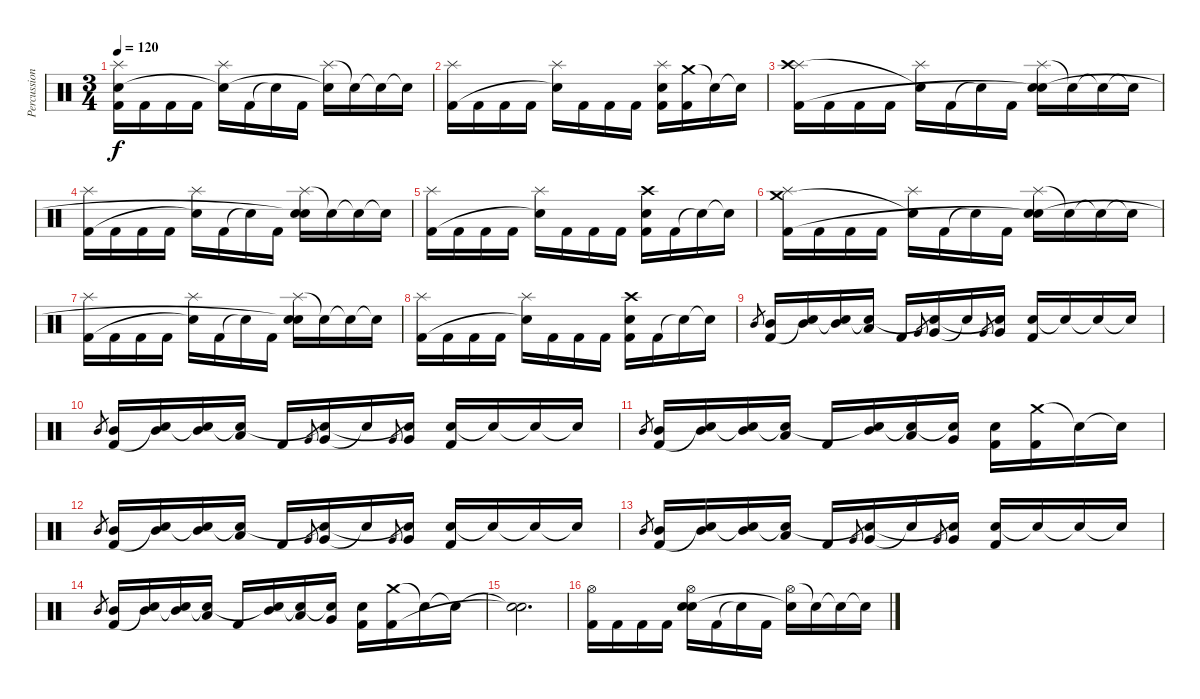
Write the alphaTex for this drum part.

\track ("Percussions" "Percussion") {instrument percussion}
\staff {score}
\articulation defaults
\ts (3 4)
\tempo 120
\clef neutral
\ks c
("Splash (hit)" "Electric Snare (hit)" "Kick (hit) 2").16{dy f} "Kick (hit) 2".16 "Kick (hit) 2".16 "Kick (hit) 2".16 ("Splash (hit)" "Snare (hit)"{t}).16 "Kick (hit) 2".16 "Snare (hit)"{t}.16 "Kick (hit) 2".16 ("Splash (hit)" "Snare (hit)"{t}).16 "Snare (hit)"{t}.16 "Snare (hit)"{t}.16 "Snare (hit)"{t}.16 |
("Splash (hit)" "Kick (hit) 2").16 "Kick (hit) 2".16 "Kick (hit) 2".16 "Kick (hit) 2".16 ("Splash (hit)" "Snare (hit)"{t}).16 "Kick (hit) 2".16 "Kick (hit) 2".16 "Kick (hit) 2".16 ("Splash (hit)" "Electric Snare (hit)" "Kick (hit) 2").16 ("Crash medium (hit)" "Kick (hit) 2").16 "Snare (hit)"{t}.16 "Snare (hit)"{t}.16 |
("Splash (hit)" "Crash high (hit)" "Kick (hit) 2").16 "Kick (hit) 2".16 "Kick (hit) 2".16 "Kick (hit) 2".16 ("Splash (hit)" "Snare (hit)"{t}).16 "Kick (hit) 2".16 "Snare (hit)"{t}.16 "Kick (hit) 2".16 ("Splash (hit)" "Electric Snare (hit)" "Snare (hit)"{t}).16 "Snare (hit)"{t}.16 "Snare (hit)"{t}.16 "Snare (hit)"{t}.16 |
("Splash (hit)" "Kick (hit) 2").16 "Kick (hit) 2".16 "Kick (hit) 2".16 "Kick (hit) 2".16 ("Splash (hit)" "Snare (hit)"{t}).16 "Kick (hit) 2".16 "Snare (hit)"{t}.16 "Kick (hit) 2".16 ("Splash (hit)" "Electric Snare (hit)" "Snare (hit)"{t}).16 "Snare (hit)"{t}.16 "Snare (hit)"{t}.16 "Snare (hit)"{t}.16 |
("Splash (hit)" "Kick (hit) 2").16 "Kick (hit) 2".16 "Kick (hit) 2".16 "Kick (hit) 2".16 ("Splash (hit)" "Snare (hit)"{t}).16 "Kick (hit) 2".16 "Kick (hit) 2".16 "Kick (hit) 2".16 ("Crash high (hit)" "Electric Snare (hit)" "Kick (hit) 2").16 "Kick (hit) 2".16 "Snare (hit)"{t}.16 "Snare (hit)"{t}.16 |
("Splash (hit)" "Crash medium (hit)" "Kick (hit) 2").16 "Kick (hit) 2".16 "Kick (hit) 2".16 "Kick (hit) 2".16 ("Splash (hit)" "Snare (hit)"{t}).16 "Kick (hit) 2".16 "Snare (hit)"{t}.16 "Kick (hit) 2".16 ("Splash (hit)" "Electric Snare (hit)" "Snare (hit)"{t}).16 "Snare (hit)"{t}.16 "Snare (hit)"{t}.16 "Snare (hit)"{t}.16 |
("Splash (hit)" "Kick (hit) 2").16 "Kick (hit) 2".16 "Kick (hit) 2".16 "Kick (hit) 2".16 ("Splash (hit)" "Snare (hit)"{t}).16 "Kick (hit) 2".16 "Snare (hit)"{t}.16 "Kick (hit) 2".16 ("Splash (hit)" "Electric Snare (hit)" "Snare (hit)"{t}).16 "Snare (hit)"{t}.16 "Snare (hit)"{t}.16 "Snare (hit)"{t}.16 |
("Splash (hit)" "Kick (hit) 2").16 "Kick (hit) 2".16 "Kick (hit) 2".16 "Kick (hit) 2".16 ("Splash (hit)" "Snare (hit)"{t}).16 "Kick (hit) 2".16 "Kick (hit) 2".16 "Kick (hit) 2".16 ("Crash high (hit)" "Electric Snare (hit)" "Kick (hit) 2").16 "Kick (hit) 2".16 "Snare (hit)"{t}.16 "Snare (hit)"{t}.16 |
"Mid Tom (hit)".8{gr} ("Mid Tom (hit)" "Kick (hit) 2").16 ("Mid Tom (hit)" "Snare (hit)"{t}).16 ("Mid Tom (hit)" "Snare (hit)"{t}).16 ("Low Tom (hit)" "Snare (hit)"{t}).16 "Kick (hit) 2".16 "Very Low Tom (hit)".8{gr} ("Very Low Tom (hit)" "Snare (hit)"{t}).16 "Snare (hit)"{t}.16 "Very Low Tom (hit)".8{gr} ("Very Low Tom (hit)" "Snare (hit)"{t}).16 ("Electric Snare (hit)" "Kick (hit) 2").16 "Snare (hit)"{t}.16 "Snare (hit)"{t}.16 "Snare (hit)"{t}.16 |
"Mid Tom (hit)".8{gr} ("Mid Tom (hit)" "Kick (hit) 2").16 ("Mid Tom (hit)" "Snare (hit)"{t}).16 ("Mid Tom (hit)" "Snare (hit)"{t}).16 ("Low Tom (hit)" "Snare (hit)"{t}).16 "Kick (hit) 2".16 "Very Low Tom (hit)".8{gr} ("Very Low Tom (hit)" "Snare (hit)"{t}).16 "Snare (hit)"{t}.16 "Very Low Tom (hit)".8{gr} ("Very Low Tom (hit)" "Snare (hit)"{t}).16 ("Electric Snare (hit)" "Kick (hit) 2").16 "Snare (hit)"{t}.16 "Snare (hit)"{t}.16 "Snare (hit)"{t}.16 |
"Mid Tom (hit)".8{gr} ("Mid Tom (hit)" "Kick (hit) 2").16 ("Mid Tom (hit)" "Snare (hit)"{t}).16 ("Mid Tom (hit)" "Snare (hit)"{t}).16 ("Low Tom (hit)" "Snare (hit)"{t}).16 "Kick (hit) 2".16 ("Mid Tom (hit)" "Snare (hit)"{t}).16 ("Low Tom (hit)" "Snare (hit)"{t}).16 ("Very Low Tom (hit)" "Snare (hit)"{t}).16 ("Electric Snare (hit)" "Kick (hit) 2").16 ("Crash medium (hit)" "Kick (hit) 2").16 "Snare (hit)"{t}.16 "Snare (hit)"{t}.16 |
"Mid Tom (hit)".8{gr} ("Mid Tom (hit)" "Kick (hit) 2").16 ("Mid Tom (hit)" "Snare (hit)"{t}).16 ("Mid Tom (hit)" "Snare (hit)"{t}).16 ("Low Tom (hit)" "Snare (hit)"{t}).16 "Kick (hit) 2".16 "Very Low Tom (hit)".8{gr} ("Very Low Tom (hit)" "Snare (hit)"{t}).16 "Snare (hit)"{t}.16 "Very Low Tom (hit)".8{gr} ("Very Low Tom (hit)" "Snare (hit)"{t}).16 ("Electric Snare (hit)" "Kick (hit) 2").16 "Snare (hit)"{t}.16 "Snare (hit)"{t}.16 "Snare (hit)"{t}.16 |
"Mid Tom (hit)".8{gr} ("Mid Tom (hit)" "Kick (hit) 2").16 ("Mid Tom (hit)" "Snare (hit)"{t}).16 ("Mid Tom (hit)" "Snare (hit)"{t}).16 ("Low Tom (hit)" "Snare (hit)"{t}).16 "Kick (hit) 2".16 "Very Low Tom (hit)".8{gr} ("Very Low Tom (hit)" "Snare (hit)"{t}).16 "Snare (hit)"{t}.16 "Very Low Tom (hit)".8{gr} ("Very Low Tom (hit)" "Snare (hit)"{t}).16 ("Electric Snare (hit)" "Kick (hit) 2").16 "Snare (hit)"{t}.16 "Snare (hit)"{t}.16 "Snare (hit)"{t}.16 |
"Mid Tom (hit)".8{gr} ("Mid Tom (hit)" "Kick (hit) 2").16 ("Mid Tom (hit)" "Snare (hit)"{t}).16 ("Mid Tom (hit)" "Snare (hit)"{t}).16 ("Low Tom (hit)" "Snare (hit)"{t}).16 "Kick (hit) 2".16 ("Mid Tom (hit)" "Snare (hit)"{t}).16 ("Low Tom (hit)" "Snare (hit)"{t}).16 ("Very Low Tom (hit)" "Snare (hit)"{t}).16 ("Electric Snare (hit)" "Kick (hit) 2").16 ("Crash medium (hit)" "Kick (hit) 2").16 "Snare (hit)"{t}.16 "Snare (hit)"{t}.16 |
("Snare (hit)"{t} "Snare (hit)"{t}).2{d} |
("Hi-Hat (open)" "Kick (hit) 2").16 "Kick (hit) 2".16 "Kick (hit) 2".16 "Kick (hit) 2".16 ("Hi-Hat (open)" "Electric Snare (hit)" "Snare (hit)").16 "Kick (hit) 2".16 "Snare (hit)"{t}.16 "Kick (hit) 2".16 ("Hi-Hat (open)" "Snare (hit)"{t}).16 "Snare (hit)"{t}.16 "Snare (hit)"{t}.16 "Snare (hit)"{t}.16
